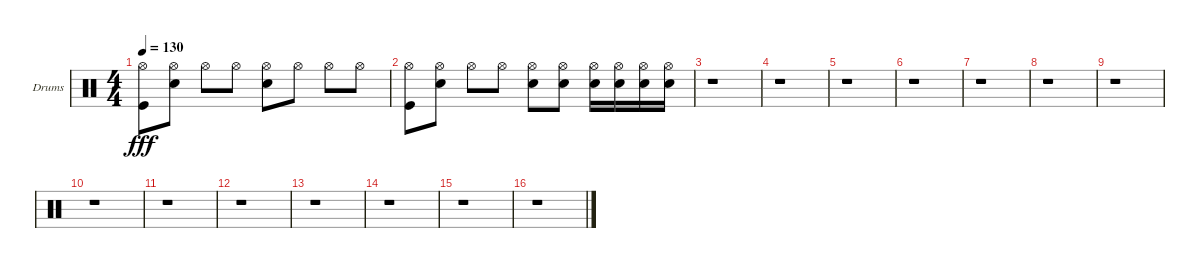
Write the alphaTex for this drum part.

\bracketExtendMode groupsimilarinstruments
\firstSystemTrackNameOrientation horizontal
\otherSystemsTrackNameOrientation horizontal
\track ("Drumkit" "Drums") {instrument percussion}
\staff {score}
\articulation defaults
\ts (4 4)
\tempo 130
\clef neutral
\ks c
("Hi-Hat (open)" "Kick (hit)").8{dy fff} ("Hi-Hat (open)" "Snare (hit) 2").8 "Hi-Hat (open)".8 "Hi-Hat (open)".8 ("Hi-Hat (open)" "Snare (hit) 2").8 "Hi-Hat (open)".8 "Hi-Hat (open)".8 "Hi-Hat (open)".8 |
("Hi-Hat (open)" "Kick (hit)").8 ("Hi-Hat (open)" "Snare (hit) 2").8 "Hi-Hat (open)".8 "Hi-Hat (open)".8 ("Hi-Hat (open)" "Snare (hit) 2").8 ("Hi-Hat (open)" "Snare (hit) 2").8 ("Hi-Hat (open)" "Snare (hit) 2").16 ("Hi-Hat (open)" "Snare (hit) 2").16 ("Hi-Hat (open)" "Snare (hit) 2").16 ("Hi-Hat (open)" "Snare (hit) 2").16 |
r.1 |
r.1 |
r.1 |
r.1 |
r.1 |
r.1 |
r.1 |
r.1 |
r.1 |
r.1 |
r.1 |
r.1 |
r.1 |
r.1
